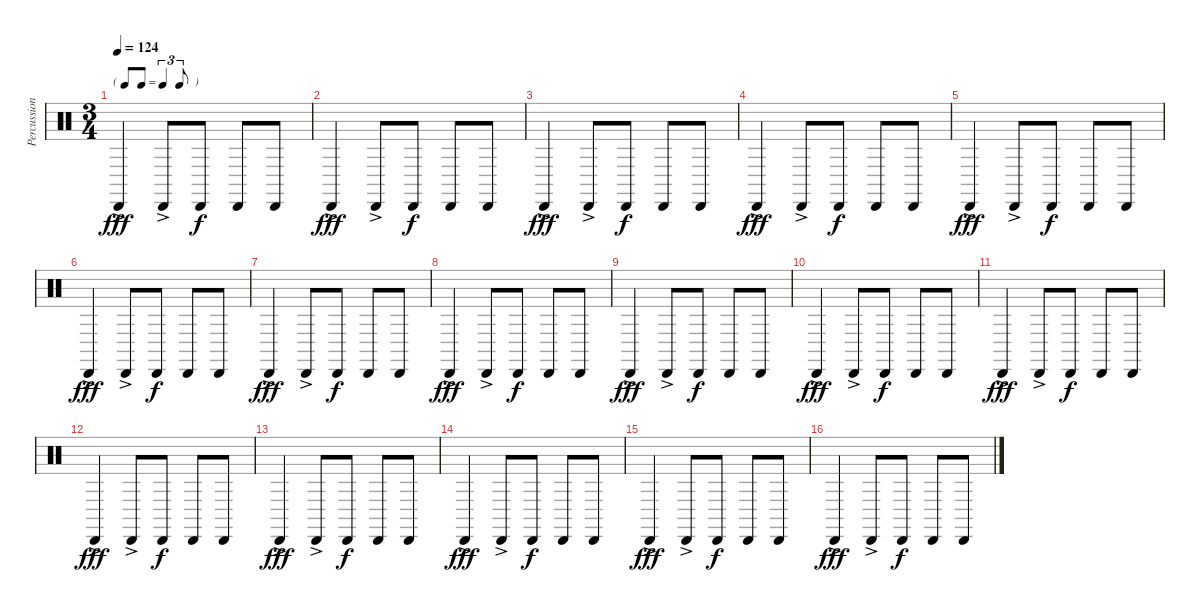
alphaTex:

\track ("Percussion" "Percussion") {instrument percussion}
\staff {score}
\articulation defaults
\ts (3 4)
\tf triplet8th
\tempo 124
\clef neutral
\ks c "Cabasa (hit)"{ac}.4{dy fff} "Cabasa (hit)"{ac}.8 "Cabasa (hit)".8{dy f} "Cabasa (hit)".8 "Cabasa (hit)".8
|
"Cabasa (hit)"{ac}.4{dy fff} "Cabasa (hit)"{ac}.8 "Cabasa (hit)".8{dy f} "Cabasa (hit)".8 "Cabasa (hit)".8 |
"Cabasa (hit)"{ac}.4{dy fff} "Cabasa (hit)"{ac}.8 "Cabasa (hit)".8{dy f} "Cabasa (hit)".8 "Cabasa (hit)".8 |
"Cabasa (hit)"{ac}.4{dy fff} "Cabasa (hit)"{ac}.8 "Cabasa (hit)".8{dy f} "Cabasa (hit)".8 "Cabasa (hit)".8 |
"Cabasa (hit)"{ac}.4{dy fff} "Cabasa (hit)"{ac}.8 "Cabasa (hit)".8{dy f} "Cabasa (hit)".8 "Cabasa (hit)".8 |
"Cabasa (hit)"{ac}.4{dy fff} "Cabasa (hit)"{ac}.8 "Cabasa (hit)".8{dy f} "Cabasa (hit)".8 "Cabasa (hit)".8 |
"Cabasa (hit)"{ac}.4{dy fff} "Cabasa (hit)"{ac}.8 "Cabasa (hit)".8{dy f} "Cabasa (hit)".8 "Cabasa (hit)".8 |
"Cabasa (hit)"{ac}.4{dy fff} "Cabasa (hit)"{ac}.8 "Cabasa (hit)".8{dy f} "Cabasa (hit)".8 "Cabasa (hit)".8 |
"Cabasa (hit)"{ac}.4{dy fff} "Cabasa (hit)"{ac}.8 "Cabasa (hit)".8{dy f} "Cabasa (hit)".8 "Cabasa (hit)".8 |
"Cabasa (hit)"{ac}.4{dy fff} "Cabasa (hit)"{ac}.8 "Cabasa (hit)".8{dy f} "Cabasa (hit)".8 "Cabasa (hit)".8 |
"Cabasa (hit)"{ac}.4{dy fff} "Cabasa (hit)"{ac}.8 "Cabasa (hit)".8{dy f} "Cabasa (hit)".8 "Cabasa (hit)".8 |
"Cabasa (hit)"{ac}.4{dy fff} "Cabasa (hit)"{ac}.8 "Cabasa (hit)".8{dy f} "Cabasa (hit)".8 "Cabasa (hit)".8 |
"Cabasa (hit)"{ac}.4{dy fff} "Cabasa (hit)"{ac}.8 "Cabasa (hit)".8{dy f} "Cabasa (hit)".8 "Cabasa (hit)".8 |
"Cabasa (hit)"{ac}.4{dy fff} "Cabasa (hit)"{ac}.8 "Cabasa (hit)".8{dy f} "Cabasa (hit)".8 "Cabasa (hit)".8 |
"Cabasa (hit)"{ac}.4{dy fff} "Cabasa (hit)"{ac}.8 "Cabasa (hit)".8{dy f} "Cabasa (hit)".8 "Cabasa (hit)".8 |
"Cabasa (hit)"{ac}.4{dy fff} "Cabasa (hit)"{ac}.8 "Cabasa (hit)".8{dy f} "Cabasa (hit)".8 "Cabasa (hit)".8
